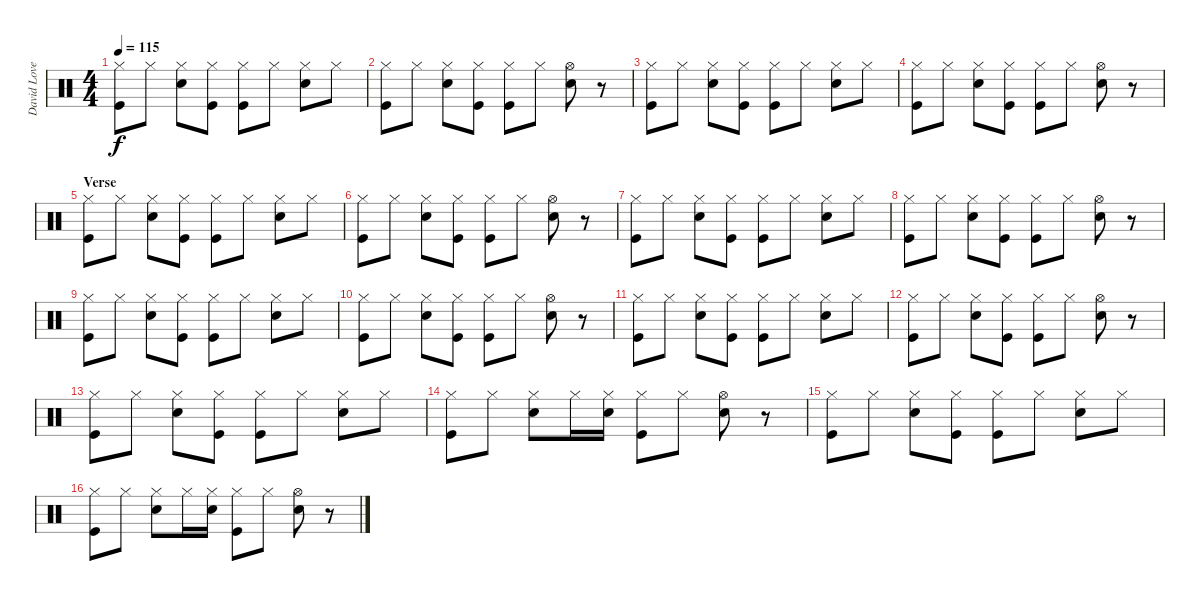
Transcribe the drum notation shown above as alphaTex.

\track ("David Lovering" "David Love") {instrument percussion}
\staff {score}
\articulation defaults
\ts (4 4)
\tempo 115
\clef neutral
\ks c
("Hi-Hat (closed)" "Kick (hit)").8{dy f} "Hi-Hat (closed)".8 ("Hi-Hat (closed)" "Snare (hit) 2").8 ("Hi-Hat (closed)" "Kick (hit)").8 ("Hi-Hat (closed)" "Kick (hit)").8 "Hi-Hat (closed)".8 ("Hi-Hat (closed)" "Snare (hit) 2").8 "Hi-Hat (closed)".8 |
("Hi-Hat (closed)" "Kick (hit)").8 "Hi-Hat (closed)".8 ("Hi-Hat (closed)" "Snare (hit) 2").8 ("Hi-Hat (closed)" "Kick (hit)").8 ("Hi-Hat (closed)" "Kick (hit)").8 "Hi-Hat (closed)".8 ("Hi-Hat (open)" "Snare (hit) 2").8 r.8 |
("Hi-Hat (closed)" "Kick (hit)").8 "Hi-Hat (closed)".8 ("Hi-Hat (closed)" "Snare (hit) 2").8 ("Hi-Hat (closed)" "Kick (hit)").8 ("Hi-Hat (closed)" "Kick (hit)").8 "Hi-Hat (closed)".8 ("Hi-Hat (closed)" "Snare (hit) 2").8 "Hi-Hat (closed)".8 |
("Hi-Hat (closed)" "Kick (hit)").8 "Hi-Hat (closed)".8 ("Hi-Hat (closed)" "Snare (hit) 2").8 ("Hi-Hat (closed)" "Kick (hit)").8 ("Hi-Hat (closed)" "Kick (hit)").8 "Hi-Hat (closed)".8 ("Hi-Hat (open)" "Snare (hit) 2").8 r.8 |
\section ("" "Verse")
("Hi-Hat (closed)" "Kick (hit)").8 "Hi-Hat (closed)".8 ("Hi-Hat (closed)" "Snare (hit) 2").8 ("Hi-Hat (closed)" "Kick (hit)").8 ("Hi-Hat (closed)" "Kick (hit)").8 "Hi-Hat (closed)".8 ("Hi-Hat (closed)" "Snare (hit) 2").8 "Hi-Hat (closed)".8 |
("Hi-Hat (closed)" "Kick (hit)").8 "Hi-Hat (closed)".8 ("Hi-Hat (closed)" "Snare (hit) 2").8 ("Hi-Hat (closed)" "Kick (hit)").8 ("Hi-Hat (closed)" "Kick (hit)").8 "Hi-Hat (closed)".8 ("Hi-Hat (open)" "Snare (hit) 2").8 r.8 |
("Hi-Hat (closed)" "Kick (hit)").8 "Hi-Hat (closed)".8 ("Hi-Hat (closed)" "Snare (hit) 2").8 ("Hi-Hat (closed)" "Kick (hit)").8 ("Hi-Hat (closed)" "Kick (hit)").8 "Hi-Hat (closed)".8 ("Hi-Hat (closed)" "Snare (hit) 2").8 "Hi-Hat (closed)".8 |
("Hi-Hat (closed)" "Kick (hit)").8 "Hi-Hat (closed)".8 ("Hi-Hat (closed)" "Snare (hit) 2").8 ("Hi-Hat (closed)" "Kick (hit)").8 ("Hi-Hat (closed)" "Kick (hit)").8 "Hi-Hat (closed)".8 ("Hi-Hat (open)" "Snare (hit) 2").8 r.8 |
("Hi-Hat (closed)" "Kick (hit)").8 "Hi-Hat (closed)".8 ("Hi-Hat (closed)" "Snare (hit) 2").8 ("Hi-Hat (closed)" "Kick (hit)").8 ("Hi-Hat (closed)" "Kick (hit)").8 "Hi-Hat (closed)".8 ("Hi-Hat (closed)" "Snare (hit) 2").8 "Hi-Hat (closed)".8 |
("Hi-Hat (closed)" "Kick (hit)").8 "Hi-Hat (closed)".8 ("Hi-Hat (closed)" "Snare (hit) 2").8 ("Hi-Hat (closed)" "Kick (hit)").8 ("Hi-Hat (closed)" "Kick (hit)").8 "Hi-Hat (closed)".8 ("Hi-Hat (open)" "Snare (hit) 2").8 r.8 |
\section ("" "")
("Hi-Hat (closed)" "Kick (hit)").8 "Hi-Hat (closed)".8 ("Hi-Hat (closed)" "Snare (hit) 2").8 ("Hi-Hat (closed)" "Kick (hit)").8 ("Hi-Hat (closed)" "Kick (hit)").8 "Hi-Hat (closed)".8 ("Hi-Hat (closed)" "Snare (hit) 2").8 "Hi-Hat (closed)".8 |
("Hi-Hat (closed)" "Kick (hit)").8 "Hi-Hat (closed)".8 ("Hi-Hat (closed)" "Snare (hit) 2").8 ("Hi-Hat (closed)" "Kick (hit)").8 ("Hi-Hat (closed)" "Kick (hit)").8 "Hi-Hat (closed)".8 ("Hi-Hat (open)" "Snare (hit) 2").8 r.8 |
("Hi-Hat (closed)" "Kick (hit)").8 "Hi-Hat (closed)".8 ("Hi-Hat (closed)" "Snare (hit) 2").8 ("Hi-Hat (closed)" "Kick (hit)").8 ("Hi-Hat (closed)" "Kick (hit)").8 "Hi-Hat (closed)".8 ("Hi-Hat (closed)" "Snare (hit) 2").8 "Hi-Hat (closed)".8 |
("Hi-Hat (closed)" "Kick (hit)").8 "Hi-Hat (closed)".8 ("Hi-Hat (closed)" "Snare (hit) 2").8 "Hi-Hat (closed)".16 ("Hi-Hat (closed)" "Snare (hit) 2").16 ("Hi-Hat (closed)" "Kick (hit)").8 "Hi-Hat (closed)".8 ("Hi-Hat (open)" "Snare (hit) 2").8 r.8 |
("Hi-Hat (closed)" "Kick (hit)").8 "Hi-Hat (closed)".8 ("Hi-Hat (closed)" "Snare (hit) 2").8 ("Hi-Hat (closed)" "Kick (hit)").8 ("Hi-Hat (closed)" "Kick (hit)").8 "Hi-Hat (closed)".8 ("Hi-Hat (closed)" "Snare (hit) 2").8 "Hi-Hat (closed)".8 |
("Hi-Hat (closed)" "Kick (hit)").8 "Hi-Hat (closed)".8 ("Hi-Hat (closed)" "Snare (hit) 2").8 "Hi-Hat (closed)".16 ("Hi-Hat (closed)" "Snare (hit) 2").16 ("Hi-Hat (closed)" "Kick (hit)").8 "Hi-Hat (closed)".8 ("Hi-Hat (open)" "Snare (hit) 2").8 r.8
